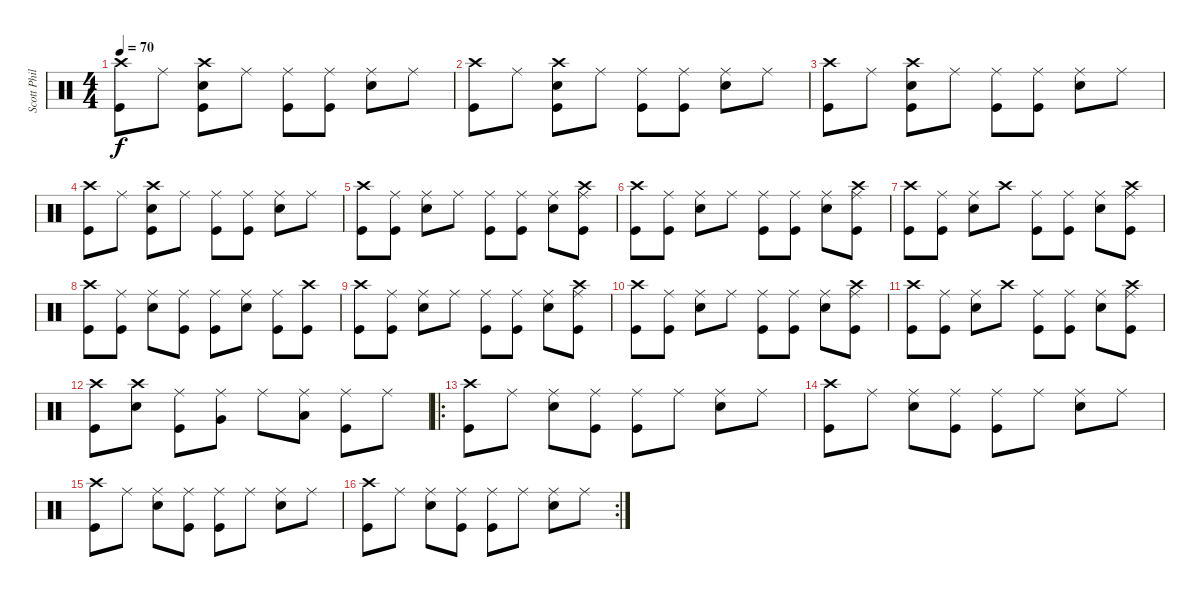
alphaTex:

\track ("Scott Phillips" "Scott Phil") {instrument percussion}
\staff {score}
\articulation defaults
\ts (4 4)
\tempo 70
\clef neutral
\ks c
("Crash high (hit)" "Kick (hit)").8{dy f} "Ride (middle)".8 ("Crash high (hit)" "Snare (hit) 2" "Kick (hit)").8 "Ride (middle)".8 ("Ride (middle)" "Kick (hit)").8 ("Ride (middle)" "Kick (hit)").8 ("Ride (middle)" "Snare (hit) 2").8 "Ride (middle)".8 |
("Crash high (hit)" "Kick (hit)").8 "Ride (middle)".8 ("Crash high (hit)" "Snare (hit) 2" "Kick (hit)").8 "Ride (middle)".8 ("Ride (middle)" "Kick (hit)").8 ("Ride (middle)" "Kick (hit)").8 ("Ride (middle)" "Snare (hit) 2").8 "Ride (middle)".8 |
("Crash high (hit)" "Kick (hit)").8 "Ride (middle)".8 ("Crash high (hit)" "Snare (hit) 2" "Kick (hit)").8 "Ride (middle)".8 ("Ride (middle)" "Kick (hit)").8 ("Ride (middle)" "Kick (hit)").8 ("Ride (middle)" "Snare (hit) 2").8 "Ride (middle)".8 |
("Crash high (hit)" "Kick (hit)").8 "Ride (middle)".8 ("Crash high (hit)" "Snare (hit) 2" "Kick (hit)").8 "Ride (middle)".8 ("Ride (middle)" "Kick (hit)").8 ("Ride (middle)" "Kick (hit)").8 ("Ride (middle)" "Snare (hit) 2").8 "Ride (middle)".8 |
("Crash high (hit)" "Kick (hit)").8 ("Ride (middle)" "Kick (hit)").8 ("Ride (middle)" "Snare (hit) 2").8 "Ride (middle)".8 ("Ride (middle)" "Kick (hit)").8 ("Ride (middle)" "Kick (hit)").8 ("Ride (middle)" "Snare (hit) 2").8 ("Crash high (hit)" "Ride (middle)" "Kick (hit)").8 |
("Crash high (hit)" "Kick (hit)").8 ("Ride (middle)" "Kick (hit)").8 ("Ride (middle)" "Snare (hit) 2").8 "Ride (middle)".8 ("Ride (middle)" "Kick (hit)").8 ("Ride (middle)" "Kick (hit)").8 ("Ride (middle)" "Snare (hit) 2").8 ("Crash high (hit)" "Ride (middle)" "Kick (hit)").8 |
("Crash high (hit)" "Kick (hit)").8 ("Ride (middle)" "Kick (hit)").8 ("Ride (middle)" "Snare (hit) 2").8 "Crash high (hit)".8 ("Ride (middle)" "Kick (hit)").8 ("Ride (middle)" "Kick (hit)").8 ("Ride (middle)" "Snare (hit) 2").8 ("Crash high (hit)" "Ride (middle)" "Kick (hit)").8 |
("Crash high (hit)" "Kick (hit)").8 ("Ride (middle)" "Kick (hit)").8 ("Ride (middle)" "Snare (hit) 2").8 ("Ride (middle)" "Kick (hit)").8 ("Ride (middle)" "Kick (hit)").8 ("Ride (middle)" "Snare (hit) 2").8 ("Ride (middle)" "Kick (hit)").8 ("Crash high (hit)" "Kick (hit)").8 |
("Crash high (hit)" "Kick (hit)").8 ("Ride (middle)" "Kick (hit)").8 ("Ride (middle)" "Snare (hit) 2").8 "Ride (middle)".8 ("Ride (middle)" "Kick (hit)").8 ("Ride (middle)" "Kick (hit)").8 ("Ride (middle)" "Snare (hit) 2").8 ("Crash high (hit)" "Ride (middle)" "Kick (hit)").8 |
("Crash high (hit)" "Kick (hit)").8 ("Ride (middle)" "Kick (hit)").8 ("Ride (middle)" "Snare (hit) 2").8 "Ride (middle)".8 ("Ride (middle)" "Kick (hit)").8 ("Ride (middle)" "Kick (hit)").8 ("Ride (middle)" "Snare (hit) 2").8 ("Crash high (hit)" "Ride (middle)" "Kick (hit)").8 |
("Crash high (hit)" "Kick (hit)").8 ("Ride (middle)" "Kick (hit)").8 ("Ride (middle)" "Snare (hit) 2").8 "Crash high (hit)".8 ("Ride (middle)" "Kick (hit)").8 ("Ride (middle)" "Kick (hit)").8 ("Ride (middle)" "Snare (hit) 2").8 ("Crash high (hit)" "Ride (middle)" "Kick (hit)").8 |
("Crash high (hit)" "Kick (hit)").8 ("Crash high (hit)" "Snare (hit) 2").8 ("Ride (middle)" "Kick (hit)").8 ("Very Low Tom (hit)" "Ride (middle)").8 "Ride (middle)".8 ("Low Floor Tom (hit)" "Ride (middle)").8 ("Ride (middle)" "Kick (hit)").8 "Ride (middle)".8 |
\ro
("Crash high (hit)" "Kick (hit)").8 "Ride (middle)".8 ("Ride (middle)" "Snare (hit) 2").8 ("Ride (middle)" "Kick (hit)").8 ("Ride (middle)" "Kick (hit)").8 "Ride (middle)".8 ("Ride (middle)" "Snare (hit) 2").8 "Ride (middle)".8 |
("Crash high (hit)" "Kick (hit)").8 "Ride (middle)".8 ("Ride (middle)" "Snare (hit) 2").8 ("Ride (middle)" "Kick (hit)").8 ("Ride (middle)" "Kick (hit)").8 "Ride (middle)".8 ("Ride (middle)" "Snare (hit) 2").8 "Ride (middle)".8 |
("Crash high (hit)" "Kick (hit)").8 "Ride (middle)".8 ("Ride (middle)" "Snare (hit) 2").8 ("Ride (middle)" "Kick (hit)").8 ("Ride (middle)" "Kick (hit)").8 "Ride (middle)".8 ("Ride (middle)" "Snare (hit) 2").8 "Ride (middle)".8 |
\rc 2
("Crash high (hit)" "Kick (hit)").8 "Ride (middle)".8 ("Ride (middle)" "Snare (hit) 2").8 ("Ride (middle)" "Kick (hit)").8 ("Ride (middle)" "Kick (hit)").8 "Ride (middle)".8 ("Ride (middle)" "Snare (hit) 2").8 "Ride (middle)".8
